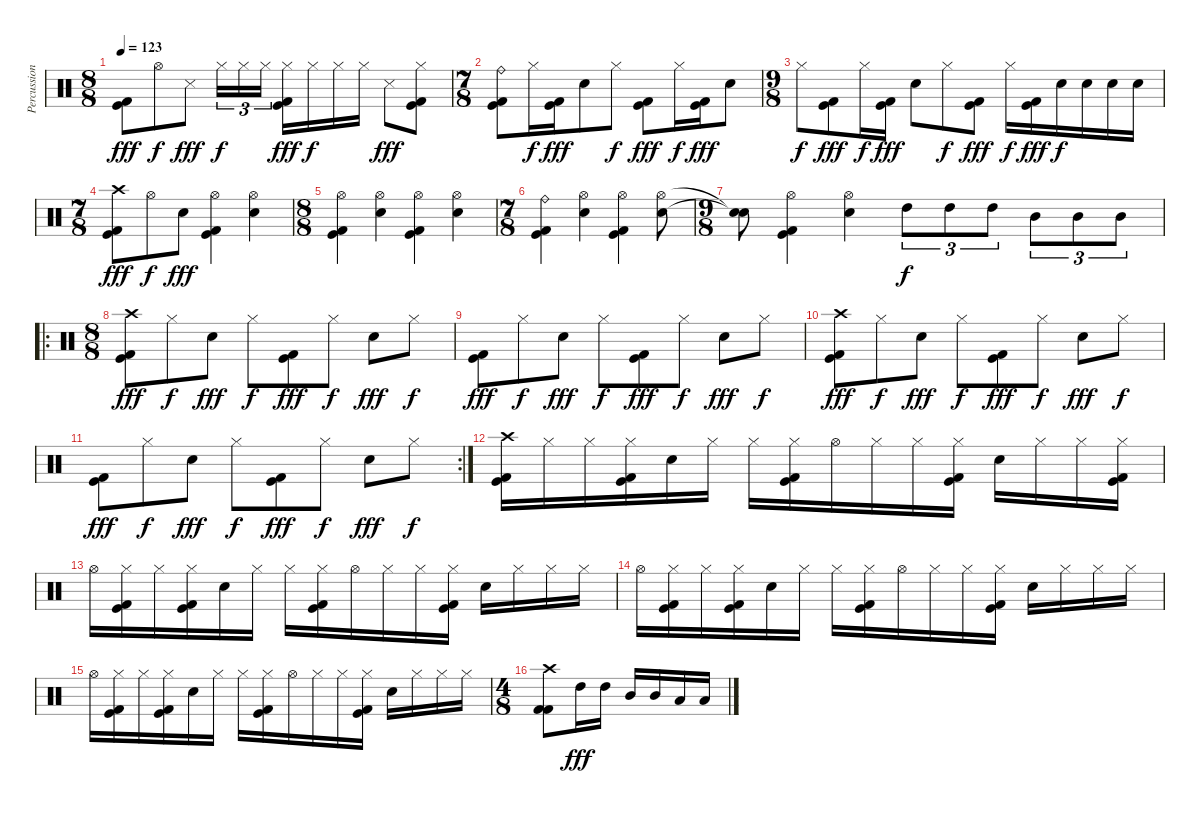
\track ("Percussion" "Percussion") {instrument percussion}
\staff {score}
\articulation defaults
\ts (8 8)
\tempo 123
\clef neutral
\ks c
("Kick (hit) 2" "Kick (hit)").8{dy fff} "Hi-Hat (open)".8{dy f} "Snare (side stick) 3".8{dy fff} "Hi-Hat (closed)".16{tu (3 2) dy f} "Hi-Hat (closed)".16{tu (3 2)} "Hi-Hat (closed)".16{tu (3 2)} ("Hi-Hat (closed)" "Kick (hit) 2" "Kick (hit)").16{dy fff} "Hi-Hat (closed)".16{dy f} "Hi-Hat (closed)".16 "Hi-Hat (closed)".16 "Snare (side stick) 3".8{dy fff} ("Hi-Hat (closed)" "Kick (hit) 2" "Kick (hit)").8 |
\ts (7 8)
("Ride (bell)" "Kick (hit) 2" "Kick (hit)").8 "Hi-Hat (closed)".16{dy f} ("Kick (hit) 2" "Kick (hit)").16{dy fff} "Electric Snare (hit)".8 "Hi-Hat (closed)".8{dy f} ("Kick (hit) 2" "Kick (hit)").8{dy fff} "Hi-Hat (closed)".16{dy f} ("Kick (hit)" "Kick (hit) 2").16{dy fff} "Electric Snare (hit)".8 |
\ts (9 8)
"Hi-Hat (closed)".8{dy f} ("Kick (hit) 2" "Kick (hit)").8{dy fff} "Hi-Hat (closed)".16{dy f} ("Kick (hit) 2" "Kick (hit)").16{dy fff} "Electric Snare (hit)".8 "Hi-Hat (closed)".8{dy f} ("Kick (hit) 2" "Kick (hit)").8{dy fff} "Hi-Hat (closed)".16{dy f} ("Kick (hit)" "Kick (hit) 2").16{dy fff} "Electric Snare (hit)".16{dy f} "Electric Snare (hit)".16 "Electric Snare (hit)".16 "Electric Snare (hit)".16 |
\ts (7 8)
("Crash high (hit)" "Kick (hit) 2" "Kick (hit)").8{dy fff} "Hi-Hat (open)".8{dy f} "Electric Snare (hit)".8{dy fff} ("Hi-Hat (open)" "Kick (hit) 2" "Kick (hit)").4 ("Hi-Hat (open)" "Electric Snare (hit)").4 |
\ts (8 8)
("Hi-Hat (open)" "Kick (hit) 2" "Kick (hit)").4 ("Hi-Hat (open)" "Electric Snare (hit)").4 ("Hi-Hat (open)" "Kick (hit) 2" "Kick (hit)").4 ("Hi-Hat (open)" "Electric Snare (hit)").4 |
\ts (7 8)
("Ride (bell)" "Kick (hit) 2" "Kick (hit)").4 ("Hi-Hat (open)" "Electric Snare (hit)").4 ("Hi-Hat (open)" "Kick (hit) 2" "Kick (hit)").4 ("Hi-Hat (open)" "Electric Snare (hit)").8 |
\ts (9 8)
("Snare (hit)"{t} "Snare (hit)"{t}).8 ("Hi-Hat (open)" "Kick (hit) 2" "Kick (hit)").4 ("Hi-Hat (open)" "Electric Snare (hit)").4 "High Tom (hit)".8{tu (3 2) dy f} "High Tom (hit)".8{tu (3 2)} "High Tom (hit)".8{tu (3 2)} "Mid Tom (hit)".8{tu (3 2)} "Mid Tom (hit)".8{tu (3 2)} "Mid Tom (hit)".8{tu (3 2)} |
\ro
\ts (8 8)
("Crash high (hit)" "Kick (hit) 2" "Kick (hit)").8{dy fff} "Hi-Hat (closed)".8{dy f} "Electric Snare (hit)".8{dy fff} "Hi-Hat (closed)".8{dy f} ("Kick (hit) 2" "Kick (hit)").8{dy fff} "Hi-Hat (closed)".8{dy f} "Electric Snare (hit)".8{dy fff} "Hi-Hat (closed)".8{dy f} |
("Kick (hit) 2" "Kick (hit)").8{dy fff} "Hi-Hat (closed)".8{dy f} "Electric Snare (hit)".8{dy fff} "Hi-Hat (closed)".8{dy f} ("Kick (hit) 2" "Kick (hit)").8{dy fff} "Hi-Hat (closed)".8{dy f} "Electric Snare (hit)".8{dy fff} "Hi-Hat (closed)".8{dy f} |
("Crash high (hit)" "Kick (hit) 2" "Kick (hit)").8{dy fff} "Hi-Hat (closed)".8{dy f} "Electric Snare (hit)".8{dy fff} "Hi-Hat (closed)".8{dy f} ("Kick (hit) 2" "Kick (hit)").8{dy fff} "Hi-Hat (closed)".8{dy f} "Electric Snare (hit)".8{dy fff} "Hi-Hat (closed)".8{dy f} |
\rc 2
("Kick (hit) 2" "Kick (hit)").8{dy fff} "Hi-Hat (closed)".8{dy f} "Electric Snare (hit)".8{dy fff} "Hi-Hat (closed)".8{dy f} ("Kick (hit) 2" "Kick (hit)").8{dy fff} "Hi-Hat (closed)".8{dy f} "Electric Snare (hit)".8{dy fff} "Hi-Hat (closed)".8{dy f} |
("Crash high (hit)" "Kick (hit)" "Kick (hit) 2").16 "Hi-Hat (closed)".16 "Hi-Hat (closed)".16 ("Hi-Hat (closed)" "Kick (hit)" "Kick (hit) 2").16 "Electric Snare (hit)".16 "Hi-Hat (closed)".16 "Hi-Hat (closed)".16 ("Hi-Hat (closed)" "Kick (hit) 2" "Kick (hit)").16 "Hi-Hat (open)".16 "Hi-Hat (closed)".16 "Hi-Hat (closed)".16 ("Hi-Hat (closed)" "Kick (hit)" "Kick (hit) 2").16 "Electric Snare (hit)".16 "Hi-Hat (closed)".16 "Hi-Hat (closed)".16 ("Hi-Hat (closed)" "Kick (hit)" "Kick (hit) 2").16 |
"Hi-Hat (open)".16 ("Hi-Hat (closed)" "Kick (hit)" "Kick (hit) 2").16 "Hi-Hat (closed)".16 ("Hi-Hat (closed)" "Kick (hit)" "Kick (hit) 2").16 "Electric Snare (hit)".16 "Hi-Hat (closed)".16 "Hi-Hat (closed)".16 ("Hi-Hat (closed)" "Kick (hit) 2" "Kick (hit)").16 "Hi-Hat (open)".16 "Hi-Hat (closed)".16 "Hi-Hat (closed)".16 ("Hi-Hat (closed)" "Kick (hit)" "Kick (hit) 2").16 "Electric Snare (hit)".16 "Hi-Hat (closed)".16 "Hi-Hat (closed)".16 "Hi-Hat (closed)".16 |
"Hi-Hat (open)".16 ("Hi-Hat (closed)" "Kick (hit)" "Kick (hit) 2").16 "Hi-Hat (closed)".16 ("Hi-Hat (closed)" "Kick (hit)" "Kick (hit) 2").16 "Electric Snare (hit)".16 "Hi-Hat (closed)".16 "Hi-Hat (closed)".16 ("Hi-Hat (closed)" "Kick (hit) 2" "Kick (hit)").16 "Hi-Hat (open)".16 "Hi-Hat (closed)".16 "Hi-Hat (closed)".16 ("Hi-Hat (closed)" "Kick (hit)" "Kick (hit) 2").16 "Electric Snare (hit)".16 "Hi-Hat (closed)".16 "Hi-Hat (closed)".16 "Hi-Hat (closed)".16 |
"Hi-Hat (open)".16 ("Hi-Hat (closed)" "Kick (hit)" "Kick (hit) 2").16 "Hi-Hat (closed)".16 ("Hi-Hat (closed)" "Kick (hit)" "Kick (hit) 2").16 "Electric Snare (hit)".16 "Hi-Hat (closed)".16 "Hi-Hat (closed)".16 ("Hi-Hat (closed)" "Kick (hit) 2" "Kick (hit)").16 "Hi-Hat (open)".16 "Hi-Hat (closed)".16 "Hi-Hat (closed)".16 ("Hi-Hat (closed)" "Kick (hit)" "Kick (hit) 2").16 "Electric Snare (hit)".16 "Hi-Hat (closed)".16 "Hi-Hat (closed)".16 "Hi-Hat (closed)".16 |
\ts (4 8)
("Crash high (hit)" "Kick (hit) 2" "Kick (hit) 2").8 "High Tom (hit)".16{dy fff} "High Tom (hit)".16 "Mid Tom (hit)".16 "Mid Tom (hit)".16 "Low Tom (hit)".16 "Low Tom (hit)".16
